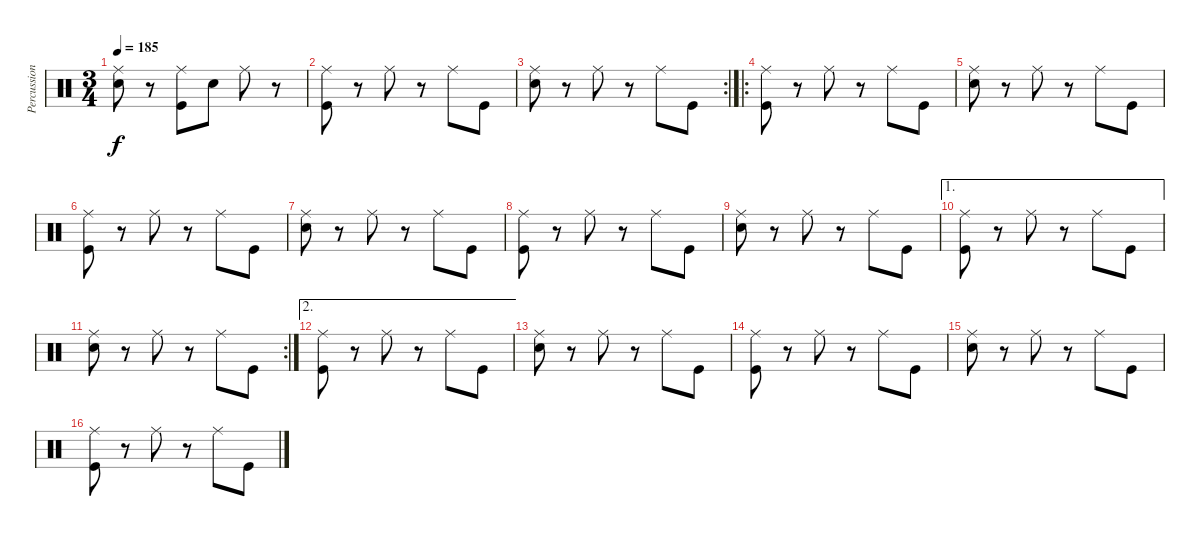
\track ("Percussion" "Percussion") {instrument percussion}
\staff {score}
\articulation defaults
\ts (3 4)
\tempo 185
\clef neutral
\ks c
("Ride (middle)" "Snare (hit) 2").8{dy f} r.8 ("Ride (middle)" "Kick (hit)").8 "Snare (hit) 2".8 "Ride (middle)".8 r.8 |
("Ride (middle)" "Kick (hit)").8 r.8 "Ride (middle)".8 r.8 "Ride (middle)".8 "Kick (hit)".8 |
\rc 2
("Ride (middle)" "Snare (hit) 2").8 r.8 "Ride (middle)".8 r.8 "Ride (middle)".8 "Kick (hit)".8 |
\ro
("Ride (middle)" "Kick (hit)").8 r.8 "Ride (middle)".8 r.8 "Ride (middle)".8 "Kick (hit)".8 |
("Ride (middle)" "Snare (hit) 2").8 r.8 "Ride (middle)".8 r.8 "Ride (middle)".8 "Kick (hit)".8 |
("Ride (middle)" "Kick (hit)").8 r.8 "Ride (middle)".8 r.8 "Ride (middle)".8 "Kick (hit)".8 |
("Ride (middle)" "Snare (hit) 2").8 r.8 "Ride (middle)".8 r.8 "Ride (middle)".8 "Kick (hit)".8 |
("Ride (middle)" "Kick (hit)").8 r.8 "Ride (middle)".8 r.8 "Ride (middle)".8 "Kick (hit)".8 |
("Ride (middle)" "Snare (hit) 2").8 r.8 "Ride (middle)".8 r.8 "Ride (middle)".8 "Kick (hit)".8 |
\ae 1
("Ride (middle)" "Kick (hit)").8 r.8 "Ride (middle)".8 r.8 "Ride (middle)".8 "Kick (hit)".8 |
\rc 2
("Ride (middle)" "Snare (hit) 2").8 r.8 "Ride (middle)".8 r.8 "Ride (middle)".8 "Kick (hit)".8 |
\ae 2
("Ride (middle)" "Kick (hit)").8 r.8 "Ride (middle)".8 r.8 "Ride (middle)".8 "Kick (hit)".8 |
("Ride (middle)" "Snare (hit) 2").8 r.8 "Ride (middle)".8 r.8 "Ride (middle)".8 "Kick (hit)".8 |
("Ride (middle)" "Kick (hit)").8 r.8 "Ride (middle)".8 r.8 "Ride (middle)".8 "Kick (hit)".8 |
("Ride (middle)" "Snare (hit) 2").8 r.8 "Ride (middle)".8 r.8 "Ride (middle)".8 "Kick (hit)".8 |
("Ride (middle)" "Kick (hit)").8 r.8 "Ride (middle)".8 r.8 "Ride (middle)".8 "Kick (hit)".8
